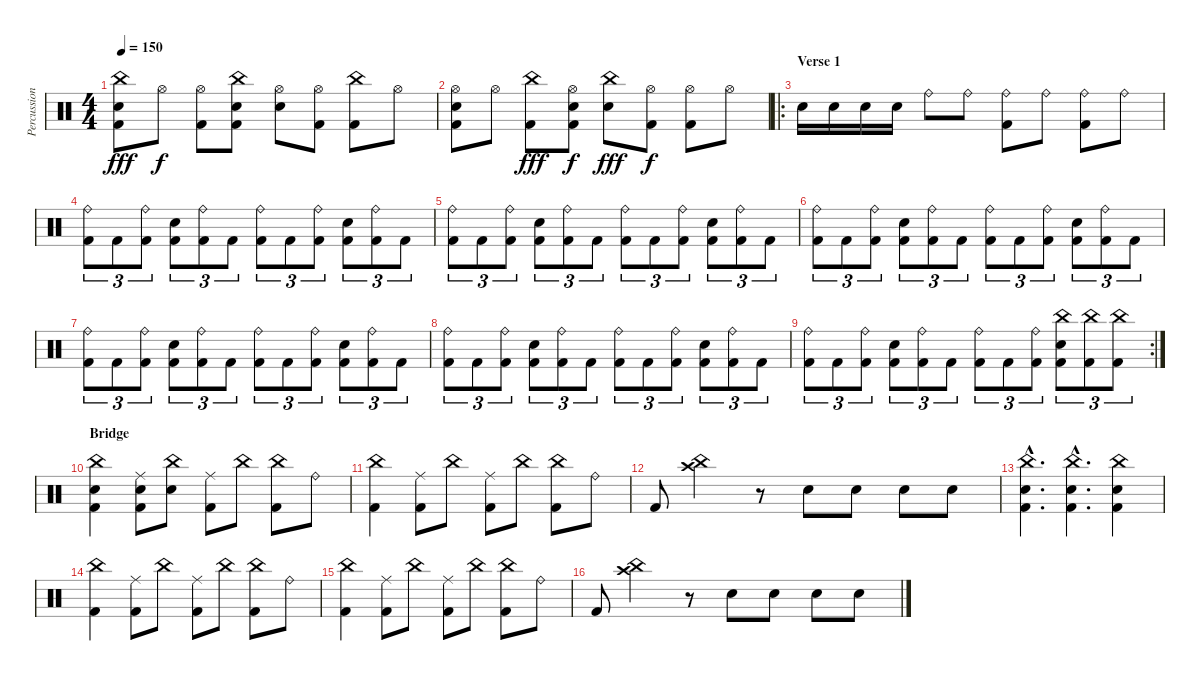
\track ("Percussions" "Percussion") {instrument percussion}
\staff {score}
\articulation defaults
\ts (4 4)
\tempo 150
\clef neutral
\ks c
("China (hit)" "Electric Snare (hit)" "Kick (hit) 2").8{dy fff} "Hi-Hat (open)".8{dy f} ("Hi-Hat (open)" "Kick (hit) 2").8 ("China (hit)" "Electric Snare (hit)" "Kick (hit) 2").8 ("Hi-Hat (open)" "Electric Snare (hit)").8 ("Hi-Hat (open)" "Kick (hit) 2").8 ("China (hit)" "Kick (hit) 2").8 "Hi-Hat (open)".8 |
("Hi-Hat (open)" "Electric Snare (hit)" "Kick (hit) 2").8 "Hi-Hat (open)".8 ("China (hit)" "Kick (hit) 2").8{dy fff} ("Hi-Hat (open)" "Electric Snare (hit)" "Kick (hit) 2").8{dy f} ("China (hit)" "Electric Snare (hit)").8{dy fff} ("Hi-Hat (open)" "Kick (hit) 2").8{dy f} ("Hi-Hat (open)" "Kick (hit) 2").8 "Hi-Hat (open)".8 |
\ro
\section ("" "Verse 1")
"Electric Snare (hit)".16 "Electric Snare (hit)".16 "Electric Snare (hit)".16 "Electric Snare (hit)".16 "Ride (bell)".8 "Ride (bell)".8 ("Ride (bell)" "Kick (hit) 2").8 "Ride (bell)".8 ("Ride (bell)" "Kick (hit) 2").8 "Ride (bell)".8 |
("Ride (bell)" "Kick (hit) 2").8{tu (3 2)} "Kick (hit) 2".8{tu (3 2)} ("Ride (bell)" "Kick (hit) 2").8{tu (3 2)} ("Electric Snare (hit)" "Kick (hit) 2").8{tu (3 2)} ("Ride (bell)" "Kick (hit) 2").8{tu (3 2)} "Kick (hit) 2".8{tu (3 2)} ("Ride (bell)" "Kick (hit) 2").8{tu (3 2)} "Kick (hit) 2".8{tu (3 2)} ("Ride (bell)" "Kick (hit) 2").8{tu (3 2)} ("Electric Snare (hit)" "Kick (hit) 2").8{tu (3 2)} ("Ride (bell)" "Kick (hit) 2").8{tu (3 2)} "Kick (hit) 2".8{tu (3 2)} |
("Ride (bell)" "Kick (hit) 2").8{tu (3 2)} "Kick (hit) 2".8{tu (3 2)} ("Ride (bell)" "Kick (hit) 2").8{tu (3 2)} ("Electric Snare (hit)" "Kick (hit) 2").8{tu (3 2)} ("Ride (bell)" "Kick (hit) 2").8{tu (3 2)} "Kick (hit) 2".8{tu (3 2)} ("Ride (bell)" "Kick (hit) 2").8{tu (3 2)} "Kick (hit) 2".8{tu (3 2)} ("Ride (bell)" "Kick (hit) 2").8{tu (3 2)} ("Electric Snare (hit)" "Kick (hit) 2").8{tu (3 2)} ("Ride (bell)" "Kick (hit) 2").8{tu (3 2)} "Kick (hit) 2".8{tu (3 2)} |
("Ride (bell)" "Kick (hit) 2").8{tu (3 2)} "Kick (hit) 2".8{tu (3 2)} ("Ride (bell)" "Kick (hit) 2").8{tu (3 2)} ("Electric Snare (hit)" "Kick (hit) 2").8{tu (3 2)} ("Ride (bell)" "Kick (hit) 2").8{tu (3 2)} "Kick (hit) 2".8{tu (3 2)} ("Ride (bell)" "Kick (hit) 2").8{tu (3 2)} "Kick (hit) 2".8{tu (3 2)} ("Ride (bell)" "Kick (hit) 2").8{tu (3 2)} ("Electric Snare (hit)" "Kick (hit) 2").8{tu (3 2)} ("Ride (bell)" "Kick (hit) 2").8{tu (3 2)} "Kick (hit) 2".8{tu (3 2)} |
("Ride (bell)" "Kick (hit) 2").8{tu (3 2)} "Kick (hit) 2".8{tu (3 2)} ("Ride (bell)" "Kick (hit) 2").8{tu (3 2)} ("Electric Snare (hit)" "Kick (hit) 2").8{tu (3 2)} ("Ride (bell)" "Kick (hit) 2").8{tu (3 2)} "Kick (hit) 2".8{tu (3 2)} ("Ride (bell)" "Kick (hit) 2").8{tu (3 2)} "Kick (hit) 2".8{tu (3 2)} ("Ride (bell)" "Kick (hit) 2").8{tu (3 2)} ("Electric Snare (hit)" "Kick (hit) 2").8{tu (3 2)} ("Ride (bell)" "Kick (hit) 2").8{tu (3 2)} "Kick (hit) 2".8{tu (3 2)} |
("Ride (bell)" "Kick (hit) 2").8{tu (3 2)} "Kick (hit) 2".8{tu (3 2)} ("Ride (bell)" "Kick (hit) 2").8{tu (3 2)} ("Electric Snare (hit)" "Kick (hit) 2").8{tu (3 2)} ("Ride (bell)" "Kick (hit) 2").8{tu (3 2)} "Kick (hit) 2".8{tu (3 2)} ("Ride (bell)" "Kick (hit) 2").8{tu (3 2)} "Kick (hit) 2".8{tu (3 2)} ("Ride (bell)" "Kick (hit) 2").8{tu (3 2)} ("Electric Snare (hit)" "Kick (hit) 2").8{tu (3 2)} ("Ride (bell)" "Kick (hit) 2").8{tu (3 2)} "Kick (hit) 2".8{tu (3 2)} |
\rc 2
("Ride (bell)" "Kick (hit) 2").8{tu (3 2)} "Kick (hit) 2".8{tu (3 2)} ("Ride (bell)" "Kick (hit) 2").8{tu (3 2)} ("Electric Snare (hit)" "Kick (hit) 2").8{tu (3 2)} ("Ride (bell)" "Kick (hit) 2").8{tu (3 2)} "Kick (hit) 2".8{tu (3 2)} ("Ride (bell)" "Kick (hit) 2").8{tu (3 2)} "Kick (hit) 2".8{tu (3 2)} ("Ride (bell)" "Kick (hit) 2").8{tu (3 2)} ("China (hit)" "Electric Snare (hit)" "Kick (hit) 2").8{tu (3 2)} ("China (hit)" "Kick (hit) 2").8{tu (3 2)} ("China (hit)" "Kick (hit) 2").8{tu (3 2)} |
\section ("" "Bridge")
("China (hit)" "Electric Snare (hit)" "Kick (hit) 2").4 ("Ride (middle)" "Electric Snare (hit)" "Kick (hit) 2").8 ("China (hit)" "Electric Snare (hit)").8 ("Ride (middle)" "Kick (hit) 2").8 "China (hit)".8 ("China (hit)" "Kick (hit) 2").8 "Ride (bell)".8 |
("China (hit)" "Kick (hit) 2").4 ("Ride (middle)" "Kick (hit) 2").8 "China (hit)".8 ("Ride (middle)" "Kick (hit) 2").8 "China (hit)".8 ("China (hit)" "Kick (hit) 2").8 "Ride (bell)".8 |
"Kick (hit) 2".8 ("Crash high (hit)" "China (hit)").4 r.8 "Electric Snare (hit)".8 "Electric Snare (hit)".8 "Electric Snare (hit)".8 "Electric Snare (hit)".8 |
("China (hit)"{hac} "Electric Snare (hit)"{hac} "Kick (hit) 2"{hac}).4{d} ("China (hit)"{hac} "Electric Snare (hit)"{hac} "Kick (hit) 2"{hac}).4{d} ("China (hit)" "Electric Snare (hit)" "Kick (hit) 2").4 |
("China (hit)" "Kick (hit) 2").4 ("Ride (middle)" "Kick (hit) 2").8 "China (hit)".8 ("Ride (middle)" "Kick (hit) 2").8 "China (hit)".8 ("China (hit)" "Kick (hit) 2").8 "Ride (bell)".8 |
("China (hit)" "Kick (hit) 2").4 ("Ride (middle)" "Kick (hit) 2").8 "China (hit)".8 ("Ride (middle)" "Kick (hit) 2").8 "China (hit)".8 ("China (hit)" "Kick (hit) 2").8 "Ride (bell)".8 |
"Kick (hit) 2".8 ("Crash high (hit)" "China (hit)").4 r.8 "Electric Snare (hit)".8 "Electric Snare (hit)".8 "Electric Snare (hit)".8 "Electric Snare (hit)".8
